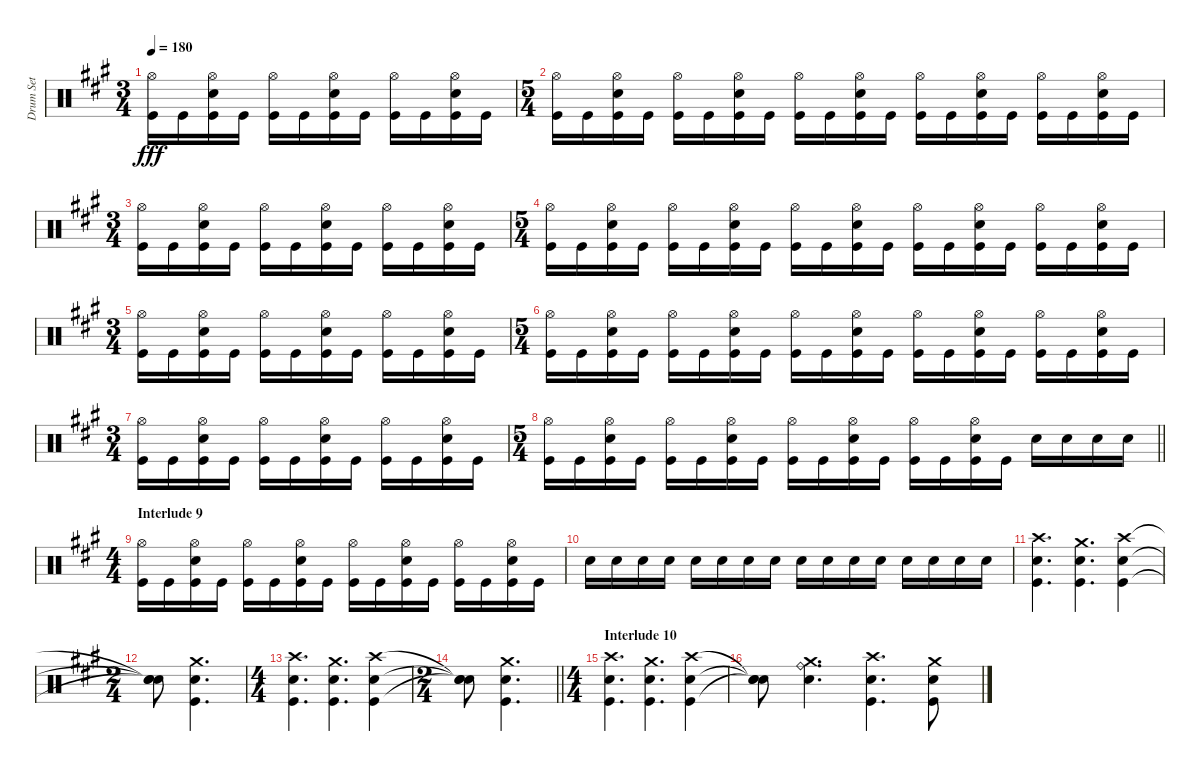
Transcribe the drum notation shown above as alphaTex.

\track ("Drum Set" "Drum Set") {instrument percussion}
\staff {score}
\articulation defaults
\ts (3 4)
\tempo 180
\clef neutral
\ks a
("Hi-Hat (open)" "Kick (hit)").16{dy fff} "Kick (hit)".16 ("Electric Snare (hit)" "Hi-Hat (open)" "Kick (hit)").16 "Kick (hit)".16 ("Hi-Hat (open)" "Kick (hit)").16 "Kick (hit)".16 ("Electric Snare (hit)" "Hi-Hat (open)" "Kick (hit)").16 "Kick (hit)".16 ("Hi-Hat (open)" "Kick (hit)").16 "Kick (hit)".16 ("Electric Snare (hit)" "Hi-Hat (open)" "Kick (hit)").16 "Kick (hit)".16 |
\ts (5 4)
("Hi-Hat (open)" "Kick (hit)").16 "Kick (hit)".16 ("Electric Snare (hit)" "Hi-Hat (open)" "Kick (hit)").16 "Kick (hit)".16 ("Hi-Hat (open)" "Kick (hit)").16 "Kick (hit)".16 ("Electric Snare (hit)" "Hi-Hat (open)" "Kick (hit)").16 "Kick (hit)".16 ("Hi-Hat (open)" "Kick (hit)").16 "Kick (hit)".16 ("Electric Snare (hit)" "Hi-Hat (open)" "Kick (hit)").16 "Kick (hit)".16 ("Hi-Hat (open)" "Kick (hit)").16 "Kick (hit)".16 ("Electric Snare (hit)" "Hi-Hat (open)" "Kick (hit)").16 "Kick (hit)".16 ("Hi-Hat (open)" "Kick (hit)").16 "Kick (hit)".16 ("Electric Snare (hit)" "Hi-Hat (open)" "Kick (hit)").16 "Kick (hit)".16 |
\ts (3 4)
("Hi-Hat (open)" "Kick (hit)").16 "Kick (hit)".16 ("Electric Snare (hit)" "Hi-Hat (open)" "Kick (hit)").16 "Kick (hit)".16 ("Hi-Hat (open)" "Kick (hit)").16 "Kick (hit)".16 ("Electric Snare (hit)" "Hi-Hat (open)" "Kick (hit)").16 "Kick (hit)".16 ("Hi-Hat (open)" "Kick (hit)").16 "Kick (hit)".16 ("Electric Snare (hit)" "Hi-Hat (open)" "Kick (hit)").16 "Kick (hit)".16 |
\ts (5 4)
("Hi-Hat (open)" "Kick (hit)").16 "Kick (hit)".16 ("Electric Snare (hit)" "Hi-Hat (open)" "Kick (hit)").16 "Kick (hit)".16 ("Hi-Hat (open)" "Kick (hit)").16 "Kick (hit)".16 ("Electric Snare (hit)" "Hi-Hat (open)" "Kick (hit)").16 "Kick (hit)".16 ("Hi-Hat (open)" "Kick (hit)").16 "Kick (hit)".16 ("Electric Snare (hit)" "Hi-Hat (open)" "Kick (hit)").16 "Kick (hit)".16 ("Hi-Hat (open)" "Kick (hit)").16 "Kick (hit)".16 ("Electric Snare (hit)" "Hi-Hat (open)" "Kick (hit)").16 "Kick (hit)".16 ("Hi-Hat (open)" "Kick (hit)").16 "Kick (hit)".16 ("Electric Snare (hit)" "Hi-Hat (open)" "Kick (hit)").16 "Kick (hit)".16 |
\ts (3 4)
("Hi-Hat (open)" "Kick (hit)").16 "Kick (hit)".16 ("Electric Snare (hit)" "Hi-Hat (open)" "Kick (hit)").16 "Kick (hit)".16 ("Hi-Hat (open)" "Kick (hit)").16 "Kick (hit)".16 ("Electric Snare (hit)" "Hi-Hat (open)" "Kick (hit)").16 "Kick (hit)".16 ("Hi-Hat (open)" "Kick (hit)").16 "Kick (hit)".16 ("Electric Snare (hit)" "Hi-Hat (open)" "Kick (hit)").16 "Kick (hit)".16 |
\ts (5 4)
("Hi-Hat (open)" "Kick (hit)").16 "Kick (hit)".16 ("Electric Snare (hit)" "Hi-Hat (open)" "Kick (hit)").16 "Kick (hit)".16 ("Hi-Hat (open)" "Kick (hit)").16 "Kick (hit)".16 ("Electric Snare (hit)" "Hi-Hat (open)" "Kick (hit)").16 "Kick (hit)".16 ("Hi-Hat (open)" "Kick (hit)").16 "Kick (hit)".16 ("Electric Snare (hit)" "Hi-Hat (open)" "Kick (hit)").16 "Kick (hit)".16 ("Hi-Hat (open)" "Kick (hit)").16 "Kick (hit)".16 ("Electric Snare (hit)" "Hi-Hat (open)" "Kick (hit)").16 "Kick (hit)".16 ("Hi-Hat (open)" "Kick (hit)").16 "Kick (hit)".16 ("Electric Snare (hit)" "Hi-Hat (open)" "Kick (hit)").16 "Kick (hit)".16 |
\ts (3 4)
("Hi-Hat (open)" "Kick (hit)").16 "Kick (hit)".16 ("Electric Snare (hit)" "Hi-Hat (open)" "Kick (hit)").16 "Kick (hit)".16 ("Hi-Hat (open)" "Kick (hit)").16 "Kick (hit)".16 ("Electric Snare (hit)" "Hi-Hat (open)" "Kick (hit)").16 "Kick (hit)".16 ("Hi-Hat (open)" "Kick (hit)").16 "Kick (hit)".16 ("Electric Snare (hit)" "Hi-Hat (open)" "Kick (hit)").16 "Kick (hit)".16 |
\ts (5 4)
\barLineRight lightlight
("Hi-Hat (open)" "Kick (hit)").16 "Kick (hit)".16 ("Electric Snare (hit)" "Hi-Hat (open)" "Kick (hit)").16 "Kick (hit)".16 ("Hi-Hat (open)" "Kick (hit)").16 "Kick (hit)".16 ("Electric Snare (hit)" "Hi-Hat (open)" "Kick (hit)").16 "Kick (hit)".16 ("Hi-Hat (open)" "Kick (hit)").16 "Kick (hit)".16 ("Electric Snare (hit)" "Hi-Hat (open)" "Kick (hit)").16 "Kick (hit)".16 ("Hi-Hat (open)" "Kick (hit)").16 "Kick (hit)".16 ("Electric Snare (hit)" "Hi-Hat (open)" "Kick (hit)").16 "Kick (hit)".16 "Electric Snare (hit)".16 "Electric Snare (hit)".16 "Electric Snare (hit)".16 "Electric Snare (hit)".16 |
\ts (4 4)
\section ("" "Interlude 9")
("Hi-Hat (open)" "Kick (hit)").16 "Kick (hit)".16 ("Electric Snare (hit)" "Hi-Hat (open)" "Kick (hit)").16 "Kick (hit)".16 ("Hi-Hat (open)" "Kick (hit)").16 "Kick (hit)".16 ("Electric Snare (hit)" "Hi-Hat (open)" "Kick (hit)").16 "Kick (hit)".16 ("Hi-Hat (open)" "Kick (hit)").16 "Kick (hit)".16 ("Electric Snare (hit)" "Hi-Hat (open)" "Kick (hit)").16 "Kick (hit)".16 ("Hi-Hat (open)" "Kick (hit)").16 "Kick (hit)".16 ("Electric Snare (hit)" "Hi-Hat (open)" "Kick (hit)").16 "Kick (hit)".16 |
"Electric Snare (hit)".16 "Electric Snare (hit)".16 "Electric Snare (hit)".16 "Electric Snare (hit)".16 "Electric Snare (hit)".16 "Electric Snare (hit)".16 "Electric Snare (hit)".16 "Electric Snare (hit)".16 "Electric Snare (hit)".16 "Electric Snare (hit)".16 "Electric Snare (hit)".16 "Electric Snare (hit)".16 "Electric Snare (hit)".16 "Electric Snare (hit)".16 "Electric Snare (hit)".16 "Electric Snare (hit)".16 |
("Electric Snare (hit)" "Kick (hit)" "Crash high (hit)").4{d} ("Electric Snare (hit)" "Kick (hit)" "Crash medium (hit)").4{d} ("Electric Snare (hit)" "Kick (hit)" "Crash high (hit)").4 |
\ts (2 4)
("Snare (hit)"{t} "Snare (hit)"{t} "Snare (hit)"{t}).8 ("Electric Snare (hit)" "Kick (hit)" "Crash medium (hit)").4{d} |
\ts (4 4)
("Electric Snare (hit)" "Kick (hit)" "Crash high (hit)").4{d} ("Electric Snare (hit)" "Kick (hit)" "Crash medium (hit)").4{d} ("Electric Snare (hit)" "Kick (hit)" "Crash high (hit)").4 |
\ts (2 4)
\barLineRight lightlight
("Snare (hit)"{t} "Snare (hit)"{t} "Snare (hit)"{t}).8 ("Electric Snare (hit)" "Kick (hit)" "Crash medium (hit)").4{d} |
\ts (4 4)
\section ("" "Interlude 10")
("Kick (hit)" "Crash high (hit)" "Electric Snare (hit)").4{d} ("Kick (hit)" "Crash medium (hit)" "Electric Snare (hit)").4{d} ("Kick (hit)" "Crash high (hit)" "Electric Snare (hit)").4 |
("Snare (hit)"{t} "Snare (hit)"{t} "Snare (hit)"{t}).8 ("Ride (bell)" "Crash medium (hit)" "Electric Snare (hit)").4{d} ("Kick (hit)" "Crash high (hit)" "Electric Snare (hit)").4{d} ("Kick (hit)" "Crash medium (hit)" "Electric Snare (hit)").8
